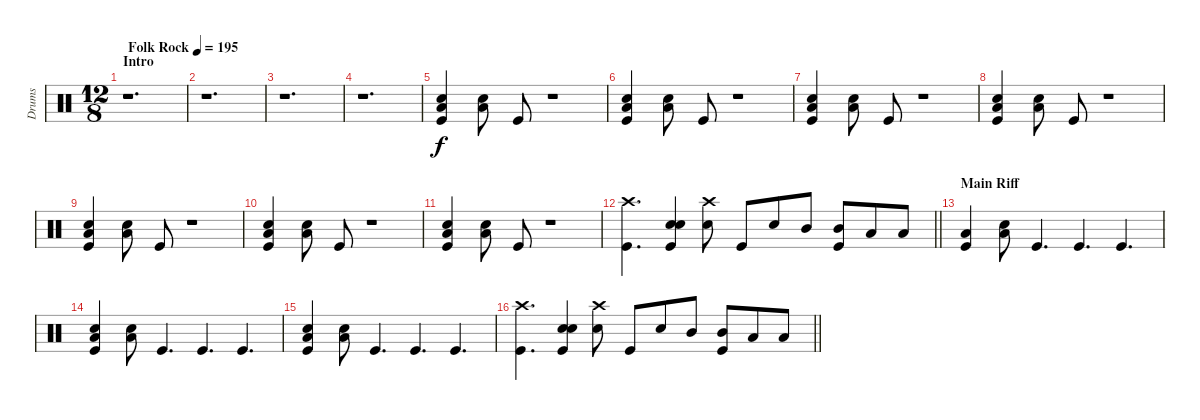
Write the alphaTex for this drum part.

\track ("Drums" "Drums") {instrument percussion}
\staff {score}
\articulation defaults
\ts (12 8)
\section ("" "Intro")
\tempo (195 "Folk Rock")
\clef neutral
\ks c
r.1{d dy f} |
r.1{d} |
r.1{d} |
r.1{d} |
("Low Tom (hit)" "Snare (hit) 2" "Kick (hit)").4 ("Low Tom (hit)" "Snare (hit) 2").8 "Kick (hit)".8 r.1 |
("Low Tom (hit)" "Snare (hit) 2" "Kick (hit)").4 ("Low Tom (hit)" "Snare (hit) 2").8 "Kick (hit)".8 r.1 |
("Low Tom (hit)" "Snare (hit) 2" "Kick (hit)").4 ("Low Tom (hit)" "Snare (hit) 2").8 "Kick (hit)".8 r.1 |
("Low Tom (hit)" "Snare (hit) 2" "Kick (hit)").4 ("Low Tom (hit)" "Snare (hit) 2").8 "Kick (hit)".8 r.1 |
("Low Tom (hit)" "Snare (hit) 2" "Kick (hit)").4 ("Low Tom (hit)" "Snare (hit) 2").8 "Kick (hit)".8 r.1 |
("Low Tom (hit)" "Snare (hit) 2" "Kick (hit)").4 ("Low Tom (hit)" "Snare (hit) 2").8 "Kick (hit)".8 r.1 |
("Low Tom (hit)" "Snare (hit) 2" "Kick (hit)").4 ("Low Tom (hit)" "Snare (hit) 2").8 "Kick (hit)".8 r.1 |
\barLineRight lightlight
("Crash high (hit)" "Kick (hit)").4{d} ("Snare (hit) 2" "Snare (hit) 2" "Kick (hit)").4 ("Crash high (hit)" "Snare (hit) 2").8 "Kick (hit)".8 "Snare (hit) 2".8 "Mid Tom (hit)".8 ("Mid Tom (hit)" "Kick (hit)").8 "Low Tom (hit)".8 "Low Tom (hit)".8 |
\section ("" "Main Riff")
("Low Tom (hit)" "Kick (hit)").4 ("Low Tom (hit)" "Snare (hit) 2").8 "Kick (hit)".4{d} "Kick (hit)".4{d} "Kick (hit)".4{d} |
("Low Tom (hit)" "Snare (hit) 2" "Kick (hit)").4 ("Low Tom (hit)" "Snare (hit) 2").8 "Kick (hit)".4{d} "Kick (hit)".4{d} "Kick (hit)".4{d} |
("Low Tom (hit)" "Snare (hit) 2" "Kick (hit)").4 ("Low Tom (hit)" "Snare (hit) 2").8 "Kick (hit)".4{d} "Kick (hit)".4{d} "Kick (hit)".4{d} |
\barLineRight lightlight
("Crash high (hit)" "Kick (hit)").4{d} ("Snare (hit) 2" "Snare (hit) 2" "Kick (hit)").4 ("Crash high (hit)" "Snare (hit) 2").8 "Kick (hit)".8 "Snare (hit) 2".8 "Mid Tom (hit)".8 ("Mid Tom (hit)" "Kick (hit)").8 "Low Tom (hit)".8 "Low Tom (hit)".8
